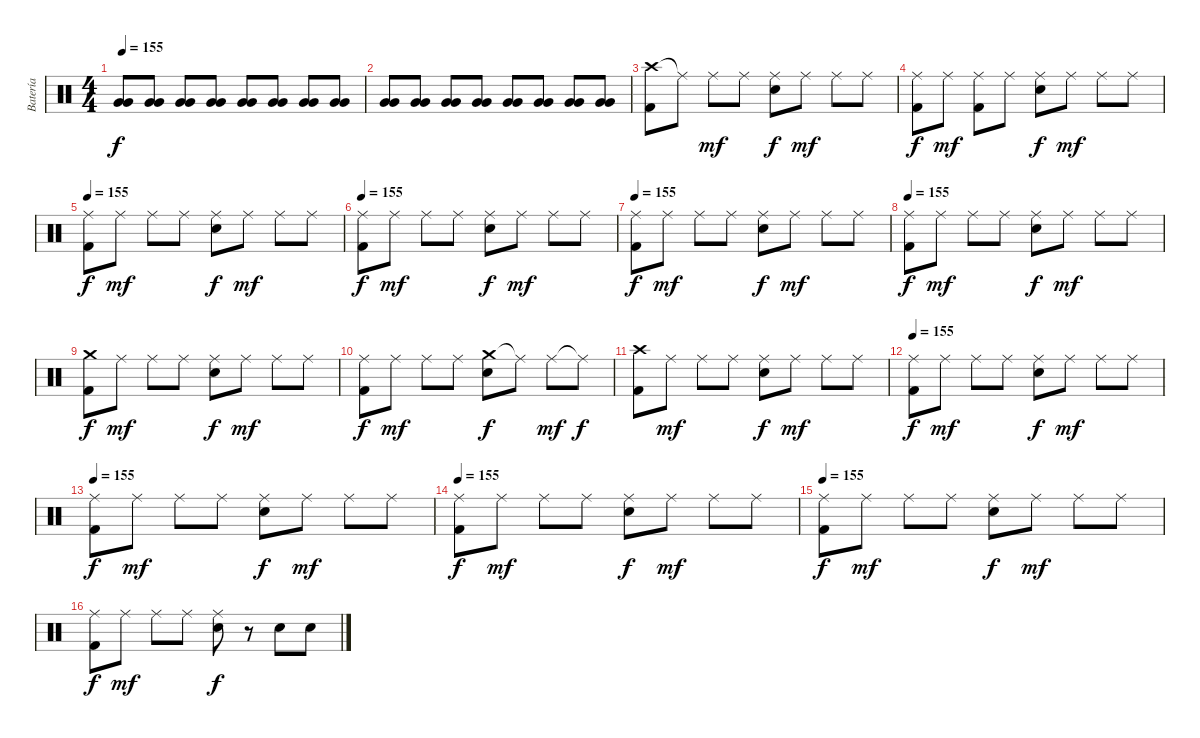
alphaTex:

\track ("Batería" "Batería") {instrument percussion}
\staff {score}
\articulation defaults
\ts (4 4)
\tempo 155
\clef neutral
\ks c
("Very Low Tom (hit)" "Very Low Tom (hit)").8{dy f} ("Very Low Tom (hit)" "Very Low Tom (hit)").8 ("Very Low Tom (hit)" "Very Low Tom (hit)").8 ("Very Low Tom (hit)" "Very Low Tom (hit)").8 ("Very Low Tom (hit)" "Very Low Tom (hit)").8 ("Very Low Tom (hit)" "Very Low Tom (hit)").8 ("Very Low Tom (hit)" "Very Low Tom (hit)").8 ("Very Low Tom (hit)" "Very Low Tom (hit)").8 |
("Very Low Tom (hit)" "Very Low Tom (hit)").8 ("Very Low Tom (hit)" "Very Low Tom (hit)").8 ("Very Low Tom (hit)" "Very Low Tom (hit)").8 ("Very Low Tom (hit)" "Very Low Tom (hit)").8 ("Very Low Tom (hit)" "Very Low Tom (hit)").8 ("Very Low Tom (hit)" "Very Low Tom (hit)").8 ("Very Low Tom (hit)" "Very Low Tom (hit)").8 ("Very Low Tom (hit)" "Very Low Tom (hit)").8 |
("Crash high (hit)" "Kick (hit) 2").8 "Ride (middle)"{t}.8 "Ride (middle)".8{dy mf} "Ride (middle)".8 ("Ride (middle)" "Snare (hit) 2").8{dy f} "Ride (middle)".8{dy mf} "Ride (middle)".8 "Ride (middle)".8 |
("Ride (middle)" "Kick (hit) 2").8{dy f} "Ride (middle)".8{dy mf} ("Ride (middle)" "Kick (hit) 2").8 "Ride (middle)".8 ("Ride (middle)" "Snare (hit) 2").8{dy f} "Ride (middle)".8{dy mf} "Ride (middle)".8 "Ride (middle)".8 |
\tempo 155
("Ride (middle)" "Kick (hit) 2").8{dy f} "Ride (middle)".8{dy mf} "Ride (middle)".8 "Ride (middle)".8 ("Ride (middle)" "Snare (hit) 2").8{dy f} "Ride (middle)".8{dy mf} "Ride (middle)".8 "Ride (middle)".8 |
\tempo 155
("Ride (middle)" "Kick (hit) 2").8{dy f} "Ride (middle)".8{dy mf} "Ride (middle)".8 "Ride (middle)".8 ("Ride (middle)" "Snare (hit) 2").8{dy f} "Ride (middle)".8{dy mf} "Ride (middle)".8 "Ride (middle)".8 |
\tempo 155
("Ride (middle)" "Kick (hit) 2").8{dy f} "Ride (middle)".8{dy mf} "Ride (middle)".8 "Ride (middle)".8 ("Ride (middle)" "Snare (hit) 2").8{dy f} "Ride (middle)".8{dy mf} "Ride (middle)".8 "Ride (middle)".8 |
\tempo 155
("Ride (middle)" "Kick (hit) 2").8{dy f} "Ride (middle)".8{dy mf} "Ride (middle)".8 "Ride (middle)".8 ("Ride (middle)" "Snare (hit) 2").8{dy f} "Ride (middle)".8{dy mf} "Ride (middle)".8 "Ride (middle)".8 |
("Crash medium (hit)" "Kick (hit) 2").8{dy f} "Ride (middle)".8{dy mf} "Ride (middle)".8 "Ride (middle)".8 ("Ride (middle)" "Snare (hit) 2").8{dy f} "Ride (middle)".8{dy mf} "Ride (middle)".8 "Ride (middle)".8 |
("Ride (middle)" "Kick (hit) 2").8{dy f} "Ride (middle)".8{dy mf} "Ride (middle)".8 "Ride (middle)".8 ("Crash medium (hit)" "Snare (hit) 2").8{dy f} "Ride (middle)"{t}.8 "Ride (middle)".8{dy mf} "Ride (middle)"{t}.8{dy f} |
("Crash high (hit)" "Kick (hit) 2").8 "Ride (middle)".8{dy mf} "Ride (middle)".8 "Ride (middle)".8 ("Ride (middle)" "Snare (hit) 2").8{dy f} "Ride (middle)".8{dy mf} "Ride (middle)".8 "Ride (middle)".8 |
\tempo 155
("Ride (middle)" "Kick (hit) 2").8{dy f} "Ride (middle)".8{dy mf} "Ride (middle)".8 "Ride (middle)".8 ("Ride (middle)" "Snare (hit) 2").8{dy f} "Ride (middle)".8{dy mf} "Ride (middle)".8 "Ride (middle)".8 |
\tempo 155
("Ride (middle)" "Kick (hit) 2").8{dy f} "Ride (middle)".8{dy mf} "Ride (middle)".8 "Ride (middle)".8 ("Ride (middle)" "Snare (hit) 2").8{dy f} "Ride (middle)".8{dy mf} "Ride (middle)".8 "Ride (middle)".8 |
\tempo 155
("Ride (middle)" "Kick (hit) 2").8{dy f} "Ride (middle)".8{dy mf} "Ride (middle)".8 "Ride (middle)".8 ("Ride (middle)" "Snare (hit) 2").8{dy f} "Ride (middle)".8{dy mf} "Ride (middle)".8 "Ride (middle)".8 |
\tempo 155
("Ride (middle)" "Kick (hit) 2").8{dy f} "Ride (middle)".8{dy mf} "Ride (middle)".8 "Ride (middle)".8 ("Ride (middle)" "Snare (hit) 2").8{dy f} "Ride (middle)".8{dy mf} "Ride (middle)".8 "Ride (middle)".8 |
("Ride (middle)" "Kick (hit) 2").8{dy f} "Ride (middle)".8{dy mf} "Ride (middle)".8 "Ride (middle)".8 ("Ride (middle)" "Snare (hit) 2").8{dy f} r.8 "Snare (hit) 2".8 "Snare (hit) 2".8
